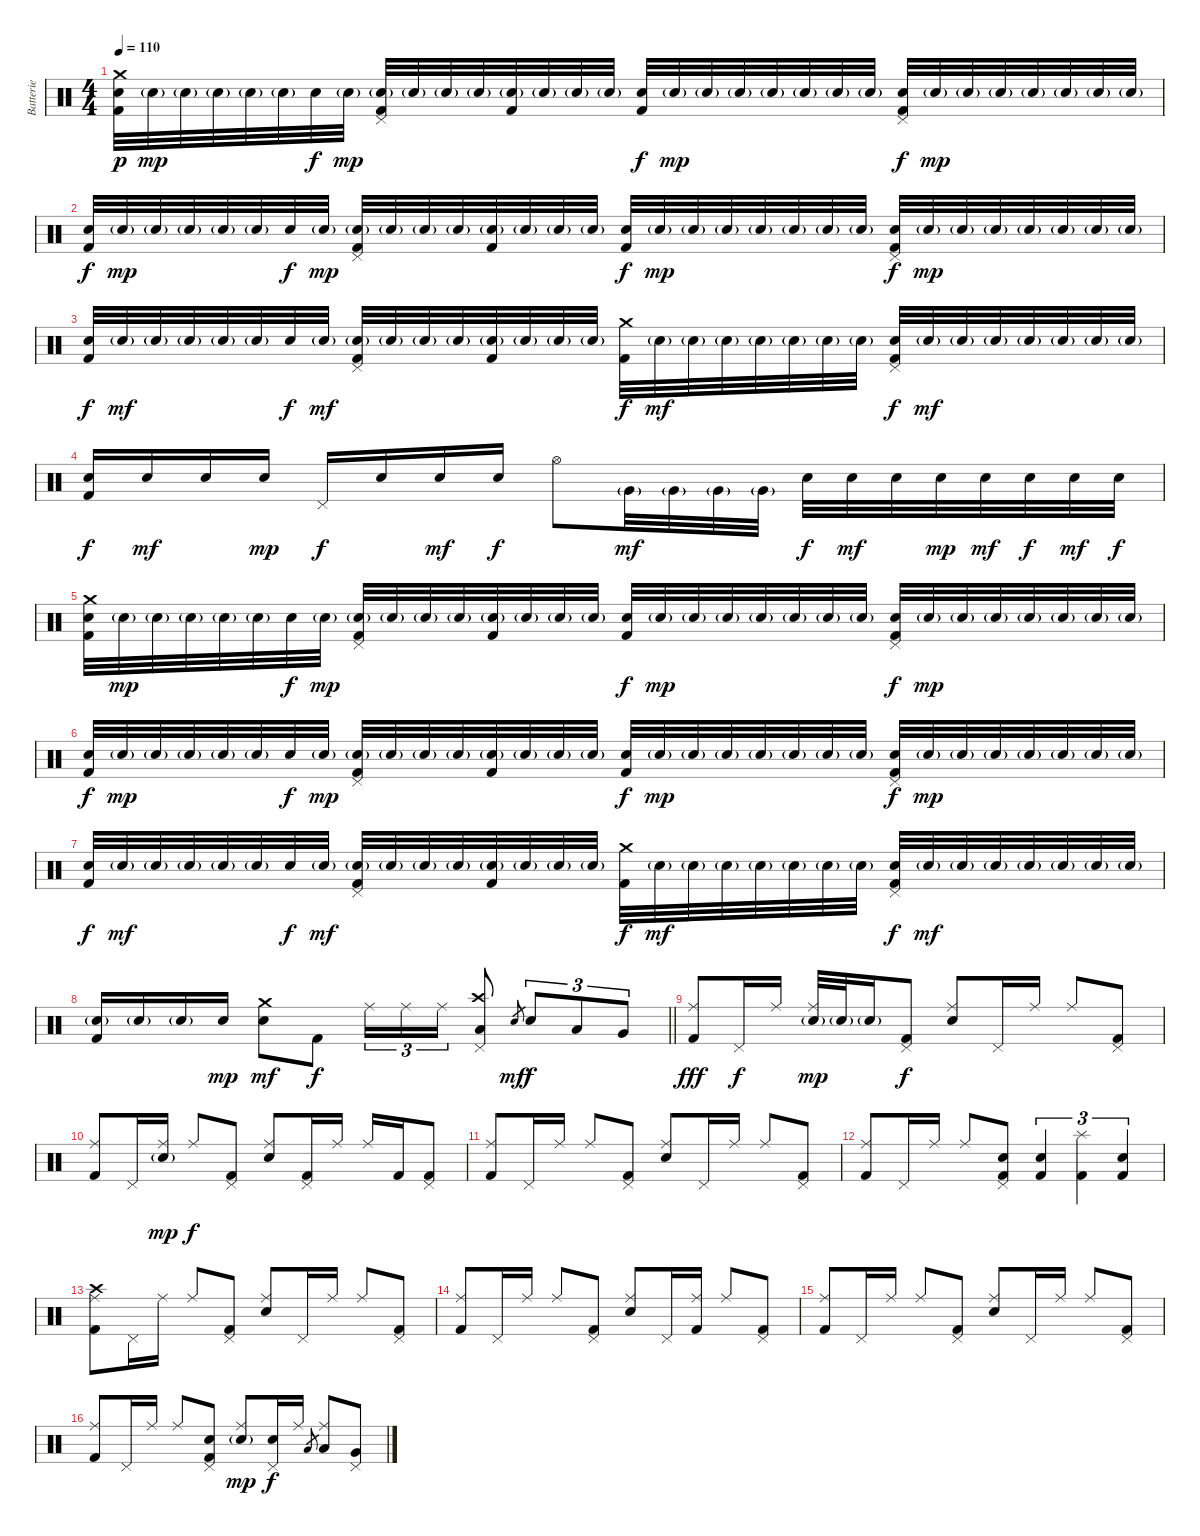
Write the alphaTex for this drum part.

\track ("Batterie" "Batterie") {instrument percussion}
\staff {score}
\articulation defaults
\ts (4 4)
\tempo 110
\clef neutral
\ks c
("Crash medium (hit)" "Snare (hit) 2" "Kick (hit) 2").32{dy p} "Snare (hit) 2"{g}.32{dy mp} "Snare (hit) 2"{g}.32 "Snare (hit) 2"{g}.32 "Snare (hit) 2"{g}.32 "Snare (hit) 2"{g}.32 "Snare (hit) 2".32{dy f} "Snare (hit) 2"{g}.32{dy mp} ("Pedal Hi-Hat (hit)" "Snare (hit) 2"{g} "Kick (hit) 2").32 "Snare (hit) 2"{g}.32 "Snare (hit) 2"{g}.32 "Snare (hit) 2"{g}.32 ("Snare (hit) 2"{g} "Kick (hit) 2").32 "Snare (hit) 2"{g}.32 "Snare (hit) 2"{g}.32 "Snare (hit) 2"{g}.32 ("Snare (hit) 2" "Kick (hit) 2").32{dy f} "Snare (hit) 2"{g}.32{dy mp} "Snare (hit) 2"{g}.32 "Snare (hit) 2"{g}.32 "Snare (hit) 2"{g}.32 "Snare (hit) 2"{g}.32 "Snare (hit) 2"{g}.32 "Snare (hit) 2"{g}.32 ("Pedal Hi-Hat (hit)" "Snare (hit) 2" "Kick (hit) 2").32{dy f} "Snare (hit) 2"{g}.32{dy mp} "Snare (hit) 2"{g}.32 "Snare (hit) 2"{g}.32 "Snare (hit) 2"{g}.32 "Snare (hit) 2"{g}.32 "Snare (hit) 2"{g}.32 "Snare (hit) 2"{g}.32 |
("Snare (hit) 2" "Kick (hit) 2").32{dy f} "Snare (hit) 2"{g}.32{dy mp} "Snare (hit) 2"{g}.32 "Snare (hit) 2"{g}.32 "Snare (hit) 2"{g}.32 "Snare (hit) 2"{g}.32 "Snare (hit) 2".32{dy f} "Snare (hit) 2"{g}.32{dy mp} ("Pedal Hi-Hat (hit)" "Snare (hit) 2"{g} "Kick (hit) 2").32 "Snare (hit) 2"{g}.32 "Snare (hit) 2"{g}.32 "Snare (hit) 2"{g}.32 ("Snare (hit) 2"{g} "Kick (hit) 2").32 "Snare (hit) 2"{g}.32 "Snare (hit) 2"{g}.32 "Snare (hit) 2"{g}.32 ("Snare (hit) 2" "Kick (hit) 2").32{dy f} "Snare (hit) 2"{g}.32{dy mp} "Snare (hit) 2"{g}.32 "Snare (hit) 2"{g}.32 "Snare (hit) 2"{g}.32 "Snare (hit) 2"{g}.32 "Snare (hit) 2"{g}.32 "Snare (hit) 2"{g}.32 ("Pedal Hi-Hat (hit)" "Snare (hit) 2" "Kick (hit) 2").32{dy f} "Snare (hit) 2"{g}.32{dy mp} "Snare (hit) 2"{g}.32 "Snare (hit) 2"{g}.32 "Snare (hit) 2"{g}.32 "Snare (hit) 2"{g}.32 "Snare (hit) 2"{g}.32 "Snare (hit) 2"{g}.32 |
("Snare (hit) 2" "Kick (hit) 2").32{dy f} "Snare (hit) 2"{g}.32{dy mf} "Snare (hit) 2"{g}.32 "Snare (hit) 2"{g}.32 "Snare (hit) 2"{g}.32 "Snare (hit) 2"{g}.32 "Snare (hit) 2".32{dy f} "Snare (hit) 2"{g}.32{dy mf} ("Pedal Hi-Hat (hit)" "Snare (hit) 2"{g} "Kick (hit) 2").32 "Snare (hit) 2"{g}.32 "Snare (hit) 2"{g}.32 "Snare (hit) 2"{g}.32 ("Snare (hit) 2"{g} "Kick (hit) 2").32 "Snare (hit) 2"{g}.32 "Snare (hit) 2"{g}.32 "Snare (hit) 2"{g}.32 ("Crash medium (hit)" "Kick (hit) 2").32{dy f} "Snare (hit) 2"{g}.32{dy mf} "Snare (hit) 2"{g}.32 "Snare (hit) 2"{g}.32 "Snare (hit) 2"{g}.32 "Snare (hit) 2"{g}.32 "Snare (hit) 2"{g}.32 "Snare (hit) 2"{g}.32 ("Pedal Hi-Hat (hit)" "Snare (hit) 2" "Kick (hit) 2").32{dy f} "Snare (hit) 2"{g}.32{dy mf} "Snare (hit) 2"{g}.32 "Snare (hit) 2"{g}.32 "Snare (hit) 2"{g}.32 "Snare (hit) 2"{g}.32 "Snare (hit) 2"{g}.32 "Snare (hit) 2"{g}.32 |
("Snare (hit) 2" "Kick (hit) 2").16{dy f} "Snare (hit) 2".16{dy mf} "Snare (hit) 2".16 "Snare (hit) 2".16{dy mp} "Pedal Hi-Hat (hit)".16{dy f} "Snare (hit) 2".16 "Snare (hit) 2".16{dy mf} "Snare (hit) 2".16{dy f} "Hi-Hat (open)".8 "Very Low Tom (hit)"{g}.32{dy mf} "Very Low Tom (hit)"{g}.32 "Very Low Tom (hit)"{g}.32 "Very Low Tom (hit)"{g}.32 "Snare (hit) 2".32{dy f} "Snare (hit) 2".32{dy mf} "Snare (hit) 2".32 "Snare (hit) 2".32{dy mp} "Snare (hit) 2".32{dy mf} "Snare (hit) 2".32{dy f} "Snare (hit) 2".32{dy mf} "Snare (hit) 2".32{dy f} |
("Crash medium (hit)" "Snare (hit) 2" "Kick (hit) 2").32 "Snare (hit) 2"{g}.32{dy mp} "Snare (hit) 2"{g}.32 "Snare (hit) 2"{g}.32 "Snare (hit) 2"{g}.32 "Snare (hit) 2"{g}.32 "Snare (hit) 2".32{dy f} "Snare (hit) 2"{g}.32{dy mp} ("Pedal Hi-Hat (hit)" "Snare (hit) 2"{g} "Kick (hit) 2").32 "Snare (hit) 2"{g}.32 "Snare (hit) 2"{g}.32 "Snare (hit) 2"{g}.32 ("Snare (hit) 2"{g} "Kick (hit) 2").32 "Snare (hit) 2"{g}.32 "Snare (hit) 2"{g}.32 "Snare (hit) 2"{g}.32 ("Snare (hit) 2" "Kick (hit) 2").32{dy f} "Snare (hit) 2"{g}.32{dy mp} "Snare (hit) 2"{g}.32 "Snare (hit) 2"{g}.32 "Snare (hit) 2"{g}.32 "Snare (hit) 2"{g}.32 "Snare (hit) 2"{g}.32 "Snare (hit) 2"{g}.32 ("Pedal Hi-Hat (hit)" "Snare (hit) 2" "Kick (hit) 2").32{dy f} "Snare (hit) 2"{g}.32{dy mp} "Snare (hit) 2"{g}.32 "Snare (hit) 2"{g}.32 "Snare (hit) 2"{g}.32 "Snare (hit) 2"{g}.32 "Snare (hit) 2"{g}.32 "Snare (hit) 2"{g}.32 |
("Snare (hit) 2" "Kick (hit) 2").32{dy f} "Snare (hit) 2"{g}.32{dy mp} "Snare (hit) 2"{g}.32 "Snare (hit) 2"{g}.32 "Snare (hit) 2"{g}.32 "Snare (hit) 2"{g}.32 "Snare (hit) 2".32{dy f} "Snare (hit) 2"{g}.32{dy mp} ("Pedal Hi-Hat (hit)" "Snare (hit) 2"{g} "Kick (hit) 2").32 "Snare (hit) 2"{g}.32 "Snare (hit) 2"{g}.32 "Snare (hit) 2"{g}.32 ("Snare (hit) 2"{g} "Kick (hit) 2").32 "Snare (hit) 2"{g}.32 "Snare (hit) 2"{g}.32 "Snare (hit) 2"{g}.32 ("Snare (hit) 2" "Kick (hit) 2").32{dy f} "Snare (hit) 2"{g}.32{dy mp} "Snare (hit) 2"{g}.32 "Snare (hit) 2"{g}.32 "Snare (hit) 2"{g}.32 "Snare (hit) 2"{g}.32 "Snare (hit) 2"{g}.32 "Snare (hit) 2"{g}.32 ("Pedal Hi-Hat (hit)" "Snare (hit) 2" "Kick (hit) 2").32{dy f} "Snare (hit) 2"{g}.32{dy mp} "Snare (hit) 2"{g}.32 "Snare (hit) 2"{g}.32 "Snare (hit) 2"{g}.32 "Snare (hit) 2"{g}.32 "Snare (hit) 2"{g}.32 "Snare (hit) 2"{g}.32 |
("Snare (hit) 2" "Kick (hit) 2").32{dy f} "Snare (hit) 2"{g}.32{dy mf} "Snare (hit) 2"{g}.32 "Snare (hit) 2"{g}.32 "Snare (hit) 2"{g}.32 "Snare (hit) 2"{g}.32 "Snare (hit) 2".32{dy f} "Snare (hit) 2"{g}.32{dy mf} ("Pedal Hi-Hat (hit)" "Snare (hit) 2"{g} "Kick (hit) 2").32 "Snare (hit) 2"{g}.32 "Snare (hit) 2"{g}.32 "Snare (hit) 2"{g}.32 ("Snare (hit) 2"{g} "Kick (hit) 2").32 "Snare (hit) 2"{g}.32 "Snare (hit) 2"{g}.32 "Snare (hit) 2"{g}.32 ("Crash medium (hit)" "Kick (hit) 2").32{dy f} "Snare (hit) 2"{g}.32{dy mf} "Snare (hit) 2"{g}.32 "Snare (hit) 2"{g}.32 "Snare (hit) 2"{g}.32 "Snare (hit) 2"{g}.32 "Snare (hit) 2"{g}.32 "Snare (hit) 2"{g}.32 ("Pedal Hi-Hat (hit)" "Snare (hit) 2" "Kick (hit) 2").32{dy f} "Snare (hit) 2"{g}.32{dy mf} "Snare (hit) 2"{g}.32 "Snare (hit) 2"{g}.32 "Snare (hit) 2"{g}.32 "Snare (hit) 2"{g}.32 "Snare (hit) 2"{g}.32 "Snare (hit) 2"{g}.32 |
\barLineRight lightlight
("Snare (hit) 2"{g} "Kick (hit) 2").16 "Snare (hit) 2"{g}.16 "Snare (hit) 2"{g}.16 "Snare (hit) 2".16{dy mp} ("Crash medium (hit)" "Snare (hit) 2").8{dy mf} "Kick (hit) 2".8{dy f} "Ride (middle)".16{tu (3 2)} "Ride (middle)".16{tu (3 2)} "Ride (middle)".16{tu (3 2)} ("Crash high (hit)" "Pedal Hi-Hat (hit)" "Low Tom (hit)").8 "Snare (hit) 2".8{gr dy mf} "Snare (hit) 2".8{tu (3 2) dy f} "Low Tom (hit)".8{tu (3 2)} "Very Low Tom (hit)".8{tu (3 2)} |
("Ride (middle)" "Kick (hit) 2").8{dy fff} "Pedal Hi-Hat (hit)".16{dy f} "Ride (middle)".16 ("Ride (middle)" "Snare (hit) 2"{g}).32{dy mp} "Snare (hit) 2"{g}.32 "Snare (hit) 2"{g}.16 ("Pedal Hi-Hat (hit)" "Kick (hit) 2").8{dy f} ("Ride (middle)" "Snare (hit) 2").8 "Pedal Hi-Hat (hit)".16 "Ride (middle)".16 "Ride (middle)".8 ("Pedal Hi-Hat (hit)" "Kick (hit) 2").8 |
("Ride (middle)" "Kick (hit) 2").8 "Pedal Hi-Hat (hit)".16 ("Ride (middle)" "Snare (hit) 2"{g}).16{dy mp} "Ride (middle)".8{dy f} ("Pedal Hi-Hat (hit)" "Kick (hit) 2").8 ("Ride (middle)" "Snare (hit) 2").8 ("Pedal Hi-Hat (hit)" "Kick (hit) 2").16 "Ride (middle)".16 "Ride (middle)".16 "Kick (hit) 2".16 ("Pedal Hi-Hat (hit)" "Kick (hit) 2").8 |
("Ride (middle)" "Kick (hit) 2").8 "Pedal Hi-Hat (hit)".16 "Ride (middle)".16 "Ride (middle)".8 ("Pedal Hi-Hat (hit)" "Kick (hit) 2").8 ("Ride (middle)" "Snare (hit) 2").8 "Pedal Hi-Hat (hit)".16 "Ride (middle)".16 "Ride (middle)".8 ("Pedal Hi-Hat (hit)" "Kick (hit) 2").8 |
("Ride (middle)" "Kick (hit) 2").8 "Pedal Hi-Hat (hit)".16 "Ride (middle)".16 "Ride (middle)".8 ("Pedal Hi-Hat (hit)" "Snare (hit) 2" "Kick (hit) 2").8 ("Snare (hit) 2" "Kick (hit) 2").4{tu (3 2)} ("Splash (hit)" "Kick (hit) 2").4{tu (3 2)} ("Snare (hit) 2" "Kick (hit) 2").4{tu (3 2)} |
("Crash high (hit)" "Ride (middle)" "Kick (hit) 2").8 "Pedal Hi-Hat (hit)".16 "Ride (middle)".16 "Ride (middle)".8 ("Pedal Hi-Hat (hit)" "Kick (hit) 2").8 ("Ride (middle)" "Snare (hit) 2").8 "Pedal Hi-Hat (hit)".16 "Ride (middle)".16 "Ride (middle)".8 ("Pedal Hi-Hat (hit)" "Kick (hit) 2").8 |
("Ride (middle)" "Kick (hit) 2").8 "Pedal Hi-Hat (hit)".16 "Ride (middle)".16 "Ride (middle)".8 ("Pedal Hi-Hat (hit)" "Kick (hit) 2").8 ("Ride (middle)" "Snare (hit) 2").8 "Pedal Hi-Hat (hit)".16 ("Ride (middle)" "Kick (hit) 2").16 "Ride (middle)".8 ("Pedal Hi-Hat (hit)" "Kick (hit) 2").8 |
("Ride (middle)" "Kick (hit) 2").8 "Pedal Hi-Hat (hit)".16 "Ride (middle)".16 "Ride (middle)".8 ("Pedal Hi-Hat (hit)" "Kick (hit) 2").8 ("Ride (middle)" "Snare (hit) 2").8 "Pedal Hi-Hat (hit)".16 "Ride (middle)".16 "Ride (middle)".8 ("Pedal Hi-Hat (hit)" "Kick (hit) 2").8 |
("Ride (middle)" "Kick (hit) 2").8 "Pedal Hi-Hat (hit)".16 "Ride (middle)".16 "Ride (middle)".8 ("Pedal Hi-Hat (hit)" "Snare (hit) 2" "Kick (hit) 2").8 ("Ride (middle)" "Snare (hit) 2"{g}).8{dy mp} ("Pedal Hi-Hat (hit)" "Snare (hit) 2").16{dy f} "Ride (middle)".16 "Low Tom (hit)".8{gr} ("Ride (middle)" "Low Tom (hit)").8 ("Pedal Hi-Hat (hit)" "Very Low Tom (hit)").8
